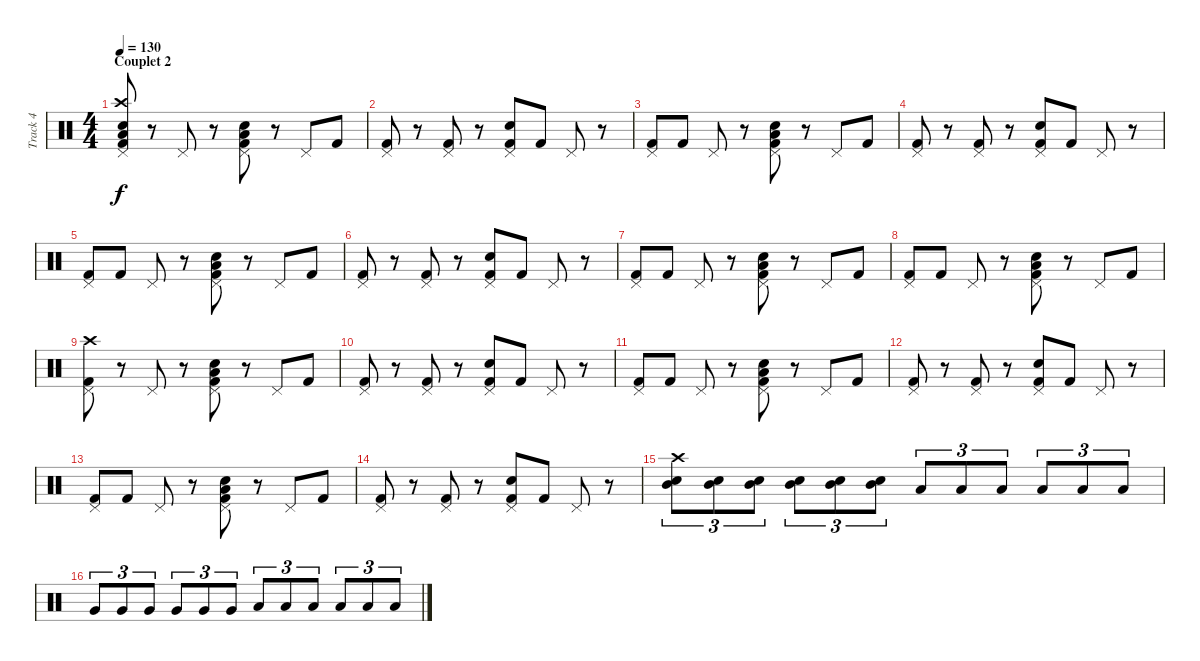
\track ("Track 4" "Track 4") {instrument percussion}
\staff {score}
\articulation defaults
\ts (4 4)
\section ("" "Couplet 2")
\tempo 130
\clef neutral
\ks c
("Low Floor Tom (hit)" "Snare (hit) 2" "Crash high (hit)" "Kick (hit) 2" "Pedal Hi-Hat (hit)").8{dy f} r.8 "Pedal Hi-Hat (hit)".8 r.8 ("Low Tom (hit)" "Snare (hit) 2" "Kick (hit) 2" "Pedal Hi-Hat (hit)").8 r.8 "Pedal Hi-Hat (hit)".8 "Kick (hit) 2".8 |
("Kick (hit) 2" "Pedal Hi-Hat (hit)").8 r.8 ("Pedal Hi-Hat (hit)" "Kick (hit) 2").8 r.8 ("Pedal Hi-Hat (hit)" "Kick (hit) 2" "Snare (hit) 2").8 "Kick (hit) 2".8 "Pedal Hi-Hat (hit)".8 r.8 |
("Kick (hit) 2" "Pedal Hi-Hat (hit)").8 "Kick (hit) 2".8 "Pedal Hi-Hat (hit)".8 r.8 ("Low Tom (hit)" "Snare (hit) 2" "Kick (hit) 2" "Pedal Hi-Hat (hit)").8 r.8 "Pedal Hi-Hat (hit)".8 "Kick (hit) 2".8 |
("Kick (hit) 2" "Pedal Hi-Hat (hit)").8 r.8 ("Pedal Hi-Hat (hit)" "Kick (hit) 2").8 r.8 ("Pedal Hi-Hat (hit)" "Kick (hit) 2" "Snare (hit) 2").8 "Kick (hit) 2".8 "Pedal Hi-Hat (hit)".8 r.8 |
("Kick (hit) 2" "Pedal Hi-Hat (hit)").8 "Kick (hit) 2".8 "Pedal Hi-Hat (hit)".8 r.8 ("Low Tom (hit)" "Snare (hit) 2" "Kick (hit) 2" "Pedal Hi-Hat (hit)").8 r.8 "Pedal Hi-Hat (hit)".8 "Kick (hit) 2".8 |
("Kick (hit) 2" "Pedal Hi-Hat (hit)").8 r.8 ("Pedal Hi-Hat (hit)" "Kick (hit) 2").8 r.8 ("Pedal Hi-Hat (hit)" "Kick (hit) 2" "Snare (hit) 2").8 "Kick (hit) 2".8 "Pedal Hi-Hat (hit)".8 r.8 |
("Kick (hit) 2" "Pedal Hi-Hat (hit)").8 "Kick (hit) 2".8 "Pedal Hi-Hat (hit)".8 r.8 ("Low Tom (hit)" "Snare (hit) 2" "Kick (hit) 2" "Pedal Hi-Hat (hit)").8 r.8 "Pedal Hi-Hat (hit)".8 "Kick (hit) 2".8 |
("Kick (hit) 2" "Pedal Hi-Hat (hit)").8 "Kick (hit) 2".8 "Pedal Hi-Hat (hit)".8 r.8 ("Low Tom (hit)" "Snare (hit) 2" "Kick (hit) 2" "Pedal Hi-Hat (hit)").8 r.8 "Pedal Hi-Hat (hit)".8 "Kick (hit) 2".8 |
("Kick (hit) 2" "Pedal Hi-Hat (hit)" "Crash high (hit)").8 r.8 "Pedal Hi-Hat (hit)".8 r.8 ("Low Tom (hit)" "Snare (hit) 2" "Kick (hit) 2" "Pedal Hi-Hat (hit)").8 r.8 "Pedal Hi-Hat (hit)".8 "Kick (hit) 2".8 |
("Kick (hit) 2" "Pedal Hi-Hat (hit)").8 r.8 ("Pedal Hi-Hat (hit)" "Kick (hit) 2").8 r.8 ("Pedal Hi-Hat (hit)" "Kick (hit) 2" "Snare (hit) 2").8 "Kick (hit) 2".8 "Pedal Hi-Hat (hit)".8 r.8 |
("Kick (hit) 2" "Pedal Hi-Hat (hit)").8 "Kick (hit) 2".8 "Pedal Hi-Hat (hit)".8 r.8 ("Low Tom (hit)" "Snare (hit) 2" "Kick (hit) 2" "Pedal Hi-Hat (hit)").8 r.8 "Pedal Hi-Hat (hit)".8 "Kick (hit) 2".8 |
("Kick (hit) 2" "Pedal Hi-Hat (hit)").8 r.8 ("Pedal Hi-Hat (hit)" "Kick (hit) 2").8 r.8 ("Pedal Hi-Hat (hit)" "Kick (hit) 2" "Snare (hit) 2").8 "Kick (hit) 2".8 "Pedal Hi-Hat (hit)".8 r.8 |
("Kick (hit) 2" "Pedal Hi-Hat (hit)").8 "Kick (hit) 2".8 "Pedal Hi-Hat (hit)".8 r.8 ("Low Tom (hit)" "Snare (hit) 2" "Kick (hit) 2" "Pedal Hi-Hat (hit)").8 r.8 "Pedal Hi-Hat (hit)".8 "Kick (hit) 2".8 |
("Kick (hit) 2" "Pedal Hi-Hat (hit)").8 r.8 ("Pedal Hi-Hat (hit)" "Kick (hit) 2").8 r.8 ("Pedal Hi-Hat (hit)" "Kick (hit) 2" "Snare (hit) 2").8 "Kick (hit) 2".8 "Pedal Hi-Hat (hit)".8 r.8 |
("Mid Tom (hit)" "Electric Snare (hit)" "Crash high (hit)").8{tu (3 2)} ("Mid Tom (hit)" "Electric Snare (hit)").8{tu (3 2)} ("Mid Tom (hit)" "Electric Snare (hit)").8{tu (3 2)} ("Mid Tom (hit)" "Electric Snare (hit)").8{tu (3 2)} ("Mid Tom (hit)" "Electric Snare (hit)").8{tu (3 2)} ("Mid Tom (hit)" "Electric Snare (hit)").8{tu (3 2)} "Low Tom (hit)".8{tu (3 2)} "Low Tom (hit)".8{tu (3 2)} "Low Tom (hit)".8{tu (3 2)} "Low Tom (hit)".8{tu (3 2)} "Low Tom (hit)".8{tu (3 2)} "Low Tom (hit)".8{tu (3 2)} |
"Very Low Tom (hit)".8{tu (3 2)} "Very Low Tom (hit)".8{tu (3 2)} "Very Low Tom (hit)".8{tu (3 2)} "Very Low Tom (hit)".8{tu (3 2)} "Very Low Tom (hit)".8{tu (3 2)} "Very Low Tom (hit)".8{tu (3 2)} "Low Floor Tom (hit)".8{tu (3 2)} "Low Floor Tom (hit)".8{tu (3 2)} "Low Floor Tom (hit)".8{tu (3 2)} "Low Floor Tom (hit)".8{tu (3 2)} "Low Floor Tom (hit)".8{tu (3 2)} "Low Floor Tom (hit)".8{tu (3 2)}
